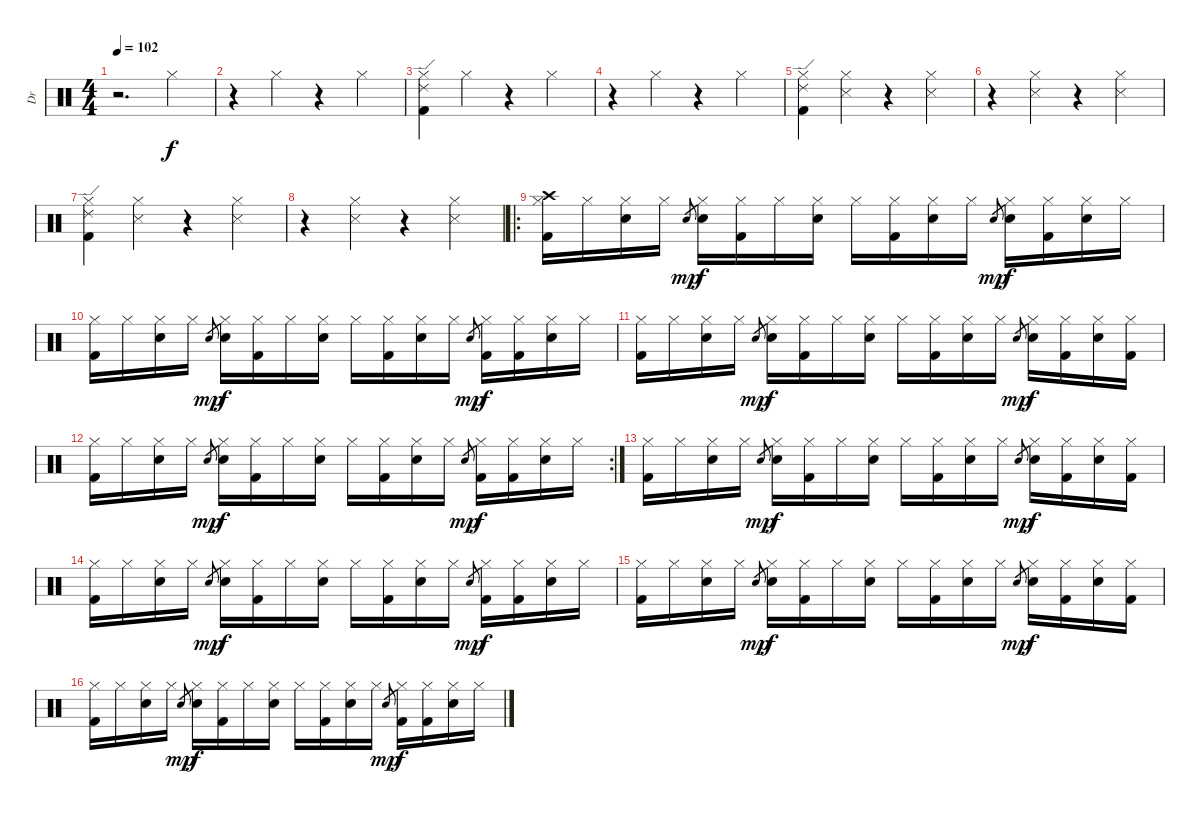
\track ("Dr" "Dr") {instrument percussion}
\staff {score}
\articulation defaults
\ts (4 4)
\tempo 102
\clef neutral
\ks c
r.2{d dy f} "Hi-Hat (closed)".4 |
r.4 "Hi-Hat (closed)".4 r.4 "Hi-Hat (closed)".4 |
("Ride (edge) 2" "Hi-Hat (closed)" "Kick (hit) 2").4 "Hi-Hat (closed)".4 r.4 "Hi-Hat (closed)".4 |
r.4 "Hi-Hat (closed)".4 r.4 "Hi-Hat (closed)".4 |
("Ride (edge) 2" "Hi-Hat (closed)" "Kick (hit) 2").4 ("Hi-Hat (closed)" "Snare (side stick) 3").4 r.4 ("Hi-Hat (closed)" "Snare (side stick) 3").4 |
r.4 ("Hi-Hat (closed)" "Snare (side stick) 3").4 r.4 ("Hi-Hat (closed)" "Snare (side stick) 3").4 |
("Ride (edge) 2" "Hi-Hat (closed)" "Kick (hit) 2").4 ("Hi-Hat (closed)" "Snare (side stick) 3").4 r.4 ("Hi-Hat (closed)" "Snare (side stick) 3").4 |
r.4 ("Hi-Hat (closed)" "Snare (side stick) 3").4 r.4 ("Hi-Hat (closed)" "Snare (side stick) 3").4 |
\ro
("Crash high (hit)" "Hi-Hat (closed)" "Kick (hit) 2").16 "Hi-Hat (closed)".16 ("Hi-Hat (closed)" "Electric Snare (hit)").16 "Hi-Hat (closed)".16 "Electric Snare (hit)".8{gr dy mp} ("Hi-Hat (closed)" "Electric Snare (hit)").16{dy f} ("Hi-Hat (closed)" "Kick (hit) 2").16 "Hi-Hat (closed)".16 ("Hi-Hat (closed)" "Electric Snare (hit)").16 "Hi-Hat (closed)".16 ("Hi-Hat (closed)" "Kick (hit) 2").16 ("Hi-Hat (closed)" "Electric Snare (hit)").16 "Hi-Hat (closed)".16 "Electric Snare (hit)".8{gr dy mp} ("Hi-Hat (closed)" "Electric Snare (hit)").16{dy f} ("Hi-Hat (closed)" "Kick (hit) 2").16 ("Hi-Hat (closed)" "Electric Snare (hit)").16 "Hi-Hat (closed)".16 |
("Hi-Hat (closed)" "Kick (hit) 2").16 "Hi-Hat (closed)".16 ("Hi-Hat (closed)" "Electric Snare (hit)").16 "Hi-Hat (closed)".16 "Electric Snare (hit)".8{gr dy mp} ("Hi-Hat (closed)" "Electric Snare (hit)").16{dy f} ("Hi-Hat (closed)" "Kick (hit) 2").16 "Hi-Hat (closed)".16 ("Hi-Hat (closed)" "Electric Snare (hit)").16 "Hi-Hat (closed)".16 ("Hi-Hat (closed)" "Kick (hit) 2").16 ("Hi-Hat (closed)" "Electric Snare (hit)").16 "Hi-Hat (closed)".16 "Electric Snare (hit)".8{gr dy mp} ("Hi-Hat (closed)" "Kick (hit) 2").16{dy f} ("Hi-Hat (closed)" "Kick (hit) 2").16 ("Hi-Hat (closed)" "Electric Snare (hit)").16 "Hi-Hat (closed)".16 |
("Hi-Hat (closed)" "Kick (hit) 2").16 "Hi-Hat (closed)".16 ("Hi-Hat (closed)" "Electric Snare (hit)").16 "Hi-Hat (closed)".16 "Electric Snare (hit)".8{gr dy mp} ("Hi-Hat (closed)" "Electric Snare (hit)").16{dy f} ("Hi-Hat (closed)" "Kick (hit) 2").16 "Hi-Hat (closed)".16 ("Hi-Hat (closed)" "Electric Snare (hit)").16 "Hi-Hat (closed)".16 ("Hi-Hat (closed)" "Kick (hit) 2").16 ("Hi-Hat (closed)" "Electric Snare (hit)").16 "Hi-Hat (closed)".16 "Electric Snare (hit)".8{gr dy mp} ("Hi-Hat (closed)" "Electric Snare (hit)").16{dy f} ("Hi-Hat (closed)" "Kick (hit) 2").16 ("Hi-Hat (closed)" "Electric Snare (hit)").16 ("Hi-Hat (closed)" "Kick (hit) 2").16 |
\rc 2
("Hi-Hat (closed)" "Kick (hit) 2").16 "Hi-Hat (closed)".16 ("Hi-Hat (closed)" "Electric Snare (hit)").16 "Hi-Hat (closed)".16 "Electric Snare (hit)".8{gr dy mp} ("Hi-Hat (closed)" "Electric Snare (hit)").16{dy f} ("Hi-Hat (closed)" "Kick (hit) 2").16 "Hi-Hat (closed)".16 ("Hi-Hat (closed)" "Electric Snare (hit)").16 "Hi-Hat (closed)".16 ("Hi-Hat (closed)" "Kick (hit) 2").16 ("Hi-Hat (closed)" "Electric Snare (hit)").16 "Hi-Hat (closed)".16 "Electric Snare (hit)".8{gr dy mp} ("Hi-Hat (closed)" "Kick (hit) 2").16{dy f} ("Hi-Hat (closed)" "Kick (hit) 2").16 ("Hi-Hat (closed)" "Electric Snare (hit)").16 "Hi-Hat (closed)".16 |
("Hi-Hat (closed)" "Kick (hit) 2").16 "Hi-Hat (closed)".16 ("Hi-Hat (closed)" "Electric Snare (hit)").16 "Hi-Hat (closed)".16 "Electric Snare (hit)".8{gr dy mp} ("Hi-Hat (closed)" "Electric Snare (hit)").16{dy f} ("Hi-Hat (closed)" "Kick (hit) 2").16 "Hi-Hat (closed)".16 ("Hi-Hat (closed)" "Electric Snare (hit)").16 "Hi-Hat (closed)".16 ("Hi-Hat (closed)" "Kick (hit) 2").16 ("Hi-Hat (closed)" "Electric Snare (hit)").16 "Hi-Hat (closed)".16 "Electric Snare (hit)".8{gr dy mp} ("Hi-Hat (closed)" "Electric Snare (hit)").16{dy f} ("Hi-Hat (closed)" "Kick (hit) 2").16 ("Hi-Hat (closed)" "Electric Snare (hit)").16 ("Hi-Hat (closed)" "Kick (hit) 2").16 |
("Hi-Hat (closed)" "Kick (hit) 2").16 "Hi-Hat (closed)".16 ("Hi-Hat (closed)" "Electric Snare (hit)").16 "Hi-Hat (closed)".16 "Electric Snare (hit)".8{gr dy mp} ("Hi-Hat (closed)" "Electric Snare (hit)").16{dy f} ("Hi-Hat (closed)" "Kick (hit) 2").16 "Hi-Hat (closed)".16 ("Hi-Hat (closed)" "Electric Snare (hit)").16 "Hi-Hat (closed)".16 ("Hi-Hat (closed)" "Kick (hit) 2").16 ("Hi-Hat (closed)" "Electric Snare (hit)").16 "Hi-Hat (closed)".16 "Electric Snare (hit)".8{gr dy mp} ("Hi-Hat (closed)" "Kick (hit) 2").16{dy f} ("Hi-Hat (closed)" "Kick (hit) 2").16 ("Hi-Hat (closed)" "Electric Snare (hit)").16 "Hi-Hat (closed)".16 |
("Hi-Hat (closed)" "Kick (hit) 2").16 "Hi-Hat (closed)".16 ("Hi-Hat (closed)" "Electric Snare (hit)").16 "Hi-Hat (closed)".16 "Electric Snare (hit)".8{gr dy mp} ("Hi-Hat (closed)" "Electric Snare (hit)").16{dy f} ("Hi-Hat (closed)" "Kick (hit) 2").16 "Hi-Hat (closed)".16 ("Hi-Hat (closed)" "Electric Snare (hit)").16 "Hi-Hat (closed)".16 ("Hi-Hat (closed)" "Kick (hit) 2").16 ("Hi-Hat (closed)" "Electric Snare (hit)").16 "Hi-Hat (closed)".16 "Electric Snare (hit)".8{gr dy mp} ("Hi-Hat (closed)" "Electric Snare (hit)").16{dy f} ("Hi-Hat (closed)" "Kick (hit) 2").16 ("Hi-Hat (closed)" "Electric Snare (hit)").16 ("Hi-Hat (closed)" "Kick (hit) 2").16 |
("Hi-Hat (closed)" "Kick (hit) 2").16 "Hi-Hat (closed)".16 ("Hi-Hat (closed)" "Electric Snare (hit)").16 "Hi-Hat (closed)".16 "Electric Snare (hit)".8{gr dy mp} ("Hi-Hat (closed)" "Electric Snare (hit)").16{dy f} ("Hi-Hat (closed)" "Kick (hit) 2").16 "Hi-Hat (closed)".16 ("Hi-Hat (closed)" "Electric Snare (hit)").16 "Hi-Hat (closed)".16 ("Hi-Hat (closed)" "Kick (hit) 2").16 ("Hi-Hat (closed)" "Electric Snare (hit)").16 "Hi-Hat (closed)".16 "Electric Snare (hit)".8{gr dy mp} ("Hi-Hat (closed)" "Kick (hit) 2").16{dy f} ("Hi-Hat (closed)" "Kick (hit) 2").16 ("Hi-Hat (closed)" "Electric Snare (hit)").16 "Hi-Hat (closed)".16
